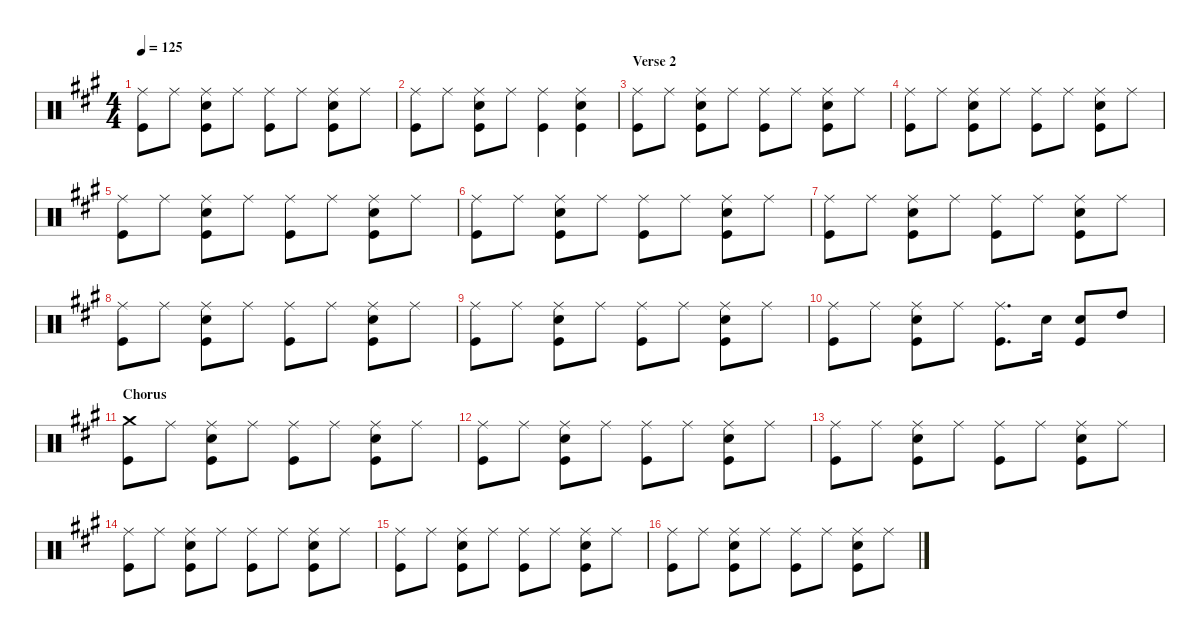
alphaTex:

\defaultSystemsLayout 4
\hideDynamics
\bracketExtendMode nobrackets
\singleTrackTrackNamePolicy hidden
\multiTrackTrackNamePolicy hidden
\otherSystemsTrackNameOrientation horizontal
\track ("Drums" "drm.") {instrument percussion}
\staff {score}
\articulation defaults
\ts (4 4)
\tempo 125
\clef neutral
\ks a
("Ride (middle)"{acc forcenatural} "Kick (hit)"{acc forcenatural}).8{dy f beam Down} "Ride (middle)"{acc forcenatural}.8{beam Down} ("Ride (middle)"{acc forcenatural} "Snare (hit) 2"{acc forcenatural} "Kick (hit)"{acc forcenatural}).8{beam Down} "Ride (middle)"{acc forcenatural}.8{beam Down} ("Ride (middle)"{acc forcenatural} "Kick (hit)"{acc forcenatural}).8{beam Down} "Ride (middle)"{acc forcenatural}.8{beam Down} ("Ride (middle)"{acc forcenatural} "Snare (hit) 2"{acc forcenatural} "Kick (hit)"{acc forcenatural}).8{beam Down} "Ride (middle)"{acc forcenatural}.8{beam Down} |
("Ride (middle)"{acc forcenatural} "Kick (hit)"{acc forcenatural}).8{beam Down} "Ride (middle)"{acc forcenatural}.8{beam Down} ("Ride (middle)"{acc forcenatural} "Snare (hit) 2"{acc forcenatural} "Kick (hit)"{acc forcenatural}).8{beam Down} "Ride (middle)"{acc forcenatural}.8{beam Down} ("Ride (middle)"{acc forcenatural} "Kick (hit)"{acc forcenatural}).4{beam Down} ("Ride (middle)"{acc forcenatural} "Snare (hit) 2"{acc forcenatural} "Kick (hit)"{acc forcenatural}).4{beam Down} |
\section ("" "Verse 2")
("Ride (middle)"{acc forcenatural} "Kick (hit)"{acc forcenatural}).8{beam Down} "Ride (middle)"{acc forcenatural}.8{beam Down} ("Ride (middle)"{acc forcenatural} "Snare (hit) 2"{acc forcenatural} "Kick (hit)"{acc forcenatural}).8{beam Down} "Ride (middle)"{acc forcenatural}.8{beam Down} ("Ride (middle)"{acc forcenatural} "Kick (hit)"{acc forcenatural}).8{beam Down} "Ride (middle)"{acc forcenatural}.8{beam Down} ("Ride (middle)"{acc forcenatural} "Snare (hit) 2"{acc forcenatural} "Kick (hit)"{acc forcenatural}).8{beam Down} "Ride (middle)"{acc forcenatural}.8{beam Down} |
("Ride (middle)"{acc forcenatural} "Kick (hit)"{acc forcenatural}).8{beam Down} "Ride (middle)"{acc forcenatural}.8{beam Down} ("Ride (middle)"{acc forcenatural} "Snare (hit) 2"{acc forcenatural} "Kick (hit)"{acc forcenatural}).8{beam Down} "Ride (middle)"{acc forcenatural}.8{beam Down} ("Ride (middle)"{acc forcenatural} "Kick (hit)"{acc forcenatural}).8{beam Down} "Ride (middle)"{acc forcenatural}.8{beam Down} ("Ride (middle)"{acc forcenatural} "Snare (hit) 2"{acc forcenatural} "Kick (hit)"{acc forcenatural}).8{beam Down} "Ride (middle)"{acc forcenatural}.8{beam Down} |
("Ride (middle)"{acc forcenatural} "Kick (hit)"{acc forcenatural}).8{beam Down} "Ride (middle)"{acc forcenatural}.8{beam Down} ("Ride (middle)"{acc forcenatural} "Snare (hit) 2"{acc forcenatural} "Kick (hit)"{acc forcenatural}).8{beam Down} "Ride (middle)"{acc forcenatural}.8{beam Down} ("Ride (middle)"{acc forcenatural} "Kick (hit)"{acc forcenatural}).8{beam Down} "Ride (middle)"{acc forcenatural}.8{beam Down} ("Ride (middle)"{acc forcenatural} "Snare (hit) 2"{acc forcenatural} "Kick (hit)"{acc forcenatural}).8{beam Down} "Ride (middle)"{acc forcenatural}.8{beam Down} |
("Ride (middle)"{acc forcenatural} "Kick (hit)"{acc forcenatural}).8{beam Down} "Ride (middle)"{acc forcenatural}.8{beam Down} ("Ride (middle)"{acc forcenatural} "Snare (hit) 2"{acc forcenatural} "Kick (hit)"{acc forcenatural}).8{beam Down} "Ride (middle)"{acc forcenatural}.8{beam Down} ("Ride (middle)"{acc forcenatural} "Kick (hit)"{acc forcenatural}).8{beam Down} "Ride (middle)"{acc forcenatural}.8{beam Down} ("Ride (middle)"{acc forcenatural} "Snare (hit) 2"{acc forcenatural} "Kick (hit)"{acc forcenatural}).8{beam Down} "Ride (middle)"{acc forcenatural}.8{beam Down} |
("Ride (middle)"{acc forcenatural} "Kick (hit)"{acc forcenatural}).8{beam Down} "Ride (middle)"{acc forcenatural}.8{beam Down} ("Ride (middle)"{acc forcenatural} "Snare (hit) 2"{acc forcenatural} "Kick (hit)"{acc forcenatural}).8{beam Down} "Ride (middle)"{acc forcenatural}.8{beam Down} ("Ride (middle)"{acc forcenatural} "Kick (hit)"{acc forcenatural}).8{beam Down} "Ride (middle)"{acc forcenatural}.8{beam Down} ("Ride (middle)"{acc forcenatural} "Snare (hit) 2"{acc forcenatural} "Kick (hit)"{acc forcenatural}).8{beam Down} "Ride (middle)"{acc forcenatural}.8{beam Down} |
("Ride (middle)"{acc forcenatural} "Kick (hit)"{acc forcenatural}).8{beam Down} "Ride (middle)"{acc forcenatural}.8{beam Down} ("Ride (middle)"{acc forcenatural} "Snare (hit) 2"{acc forcenatural} "Kick (hit)"{acc forcenatural}).8{beam Down} "Ride (middle)"{acc forcenatural}.8{beam Down} ("Ride (middle)"{acc forcenatural} "Kick (hit)"{acc forcenatural}).8{beam Down} "Ride (middle)"{acc forcenatural}.8{beam Down} ("Ride (middle)"{acc forcenatural} "Snare (hit) 2"{acc forcenatural} "Kick (hit)"{acc forcenatural}).8{beam Down} "Ride (middle)"{acc forcenatural}.8{beam Down} |
("Ride (middle)"{acc forcenatural} "Kick (hit)"{acc forcenatural}).8{beam Down} "Ride (middle)"{acc forcenatural}.8{beam Down} ("Ride (middle)"{acc forcenatural} "Snare (hit) 2"{acc forcenatural} "Kick (hit)"{acc forcenatural}).8{beam Down} "Ride (middle)"{acc forcenatural}.8{beam Down} ("Ride (middle)"{acc forcenatural} "Kick (hit)"{acc forcenatural}).8{beam Down} "Ride (middle)"{acc forcenatural}.8{beam Down} ("Ride (middle)"{acc forcenatural} "Snare (hit) 2"{acc forcenatural} "Kick (hit)"{acc forcenatural}).8{beam Down} "Ride (middle)"{acc forcenatural}.8{beam Down} |
("Ride (middle)"{acc forcenatural} "Kick (hit)"{acc forcenatural}).8{beam Down} "Ride (middle)"{acc forcenatural}.8{beam Down} ("Ride (middle)"{acc forcenatural} "Snare (hit) 2"{acc forcenatural} "Kick (hit)"{acc forcenatural}).8{beam Down} "Ride (middle)"{acc forcenatural}.8{beam Down} ("Ride (middle)"{acc forcenatural} "Kick (hit)"{acc forcenatural}).8{d beam Down} "Snare (hit) 2"{acc forcenatural}.16{beam Down} ("Snare (hit) 2"{acc forcenatural} "Kick (hit)"{acc forcenatural}).8{beam Up} "High Tom (hit)"{acc forcenatural}.8{beam Up} |
\section ("" "Chorus")
("Crash medium (hit)"{acc forcenatural} "Kick (hit)"{acc forcenatural}).8{beam Down} "Ride (middle)"{acc forcenatural}.8{beam Down} ("Ride (middle)"{acc forcenatural} "Snare (hit) 2"{acc forcenatural} "Kick (hit)"{acc forcenatural}).8{beam Down} "Ride (middle)"{acc forcenatural}.8{beam Down} ("Ride (middle)"{acc forcenatural} "Kick (hit)"{acc forcenatural}).8{beam Down} "Ride (middle)"{acc forcenatural}.8{beam Down} ("Ride (middle)"{acc forcenatural} "Snare (hit) 2"{acc forcenatural} "Kick (hit)"{acc forcenatural}).8{beam Down} "Ride (middle)"{acc forcenatural}.8{beam Down} |
("Ride (middle)"{acc forcenatural} "Kick (hit)"{acc forcenatural}).8{beam Down} "Ride (middle)"{acc forcenatural}.8{beam Down} ("Ride (middle)"{acc forcenatural} "Snare (hit) 2"{acc forcenatural} "Kick (hit)"{acc forcenatural}).8{beam Down} "Ride (middle)"{acc forcenatural}.8{beam Down} ("Ride (middle)"{acc forcenatural} "Kick (hit)"{acc forcenatural}).8{beam Down} "Ride (middle)"{acc forcenatural}.8{beam Down} ("Ride (middle)"{acc forcenatural} "Snare (hit) 2"{acc forcenatural} "Kick (hit)"{acc forcenatural}).8{beam Down} "Ride (middle)"{acc forcenatural}.8{beam Down} |
("Ride (middle)"{acc forcenatural} "Kick (hit)"{acc forcenatural}).8{beam Down} "Ride (middle)"{acc forcenatural}.8{beam Down} ("Ride (middle)"{acc forcenatural} "Snare (hit) 2"{acc forcenatural} "Kick (hit)"{acc forcenatural}).8{beam Down} "Ride (middle)"{acc forcenatural}.8{beam Down} ("Ride (middle)"{acc forcenatural} "Kick (hit)"{acc forcenatural}).8{beam Down} "Ride (middle)"{acc forcenatural}.8{beam Down} ("Ride (middle)"{acc forcenatural} "Snare (hit) 2"{acc forcenatural} "Kick (hit)"{acc forcenatural}).8{beam Down} "Ride (middle)"{acc forcenatural}.8{beam Down} |
("Ride (middle)"{acc forcenatural} "Kick (hit)"{acc forcenatural}).8{beam Down} "Ride (middle)"{acc forcenatural}.8{beam Down} ("Ride (middle)"{acc forcenatural} "Snare (hit) 2"{acc forcenatural} "Kick (hit)"{acc forcenatural}).8{beam Down} "Ride (middle)"{acc forcenatural}.8{beam Down} ("Ride (middle)"{acc forcenatural} "Kick (hit)"{acc forcenatural}).8{beam Down} "Ride (middle)"{acc forcenatural}.8{beam Down} ("Ride (middle)"{acc forcenatural} "Snare (hit) 2"{acc forcenatural} "Kick (hit)"{acc forcenatural}).8{beam Down} "Ride (middle)"{acc forcenatural}.8{beam Down} |
("Ride (middle)"{acc forcenatural} "Kick (hit)"{acc forcenatural}).8{beam Down} "Ride (middle)"{acc forcenatural}.8{beam Down} ("Ride (middle)"{acc forcenatural} "Snare (hit) 2"{acc forcenatural} "Kick (hit)"{acc forcenatural}).8{beam Down} "Ride (middle)"{acc forcenatural}.8{beam Down} ("Ride (middle)"{acc forcenatural} "Kick (hit)"{acc forcenatural}).8{beam Down} "Ride (middle)"{acc forcenatural}.8{beam Down} ("Ride (middle)"{acc forcenatural} "Snare (hit) 2"{acc forcenatural} "Kick (hit)"{acc forcenatural}).8{beam Down} "Ride (middle)"{acc forcenatural}.8{beam Down} |
("Ride (middle)"{acc forcenatural} "Kick (hit)"{acc forcenatural}).8{beam Down} "Ride (middle)"{acc forcenatural}.8{beam Down} ("Ride (middle)"{acc forcenatural} "Snare (hit) 2"{acc forcenatural} "Kick (hit)"{acc forcenatural}).8{beam Down} "Ride (middle)"{acc forcenatural}.8{beam Down} ("Ride (middle)"{acc forcenatural} "Kick (hit)"{acc forcenatural}).8{beam Down} "Ride (middle)"{acc forcenatural}.8{beam Down} ("Ride (middle)"{acc forcenatural} "Snare (hit) 2"{acc forcenatural} "Kick (hit)"{acc forcenatural}).8{beam Down} "Ride (middle)"{acc forcenatural}.8{beam Down}
